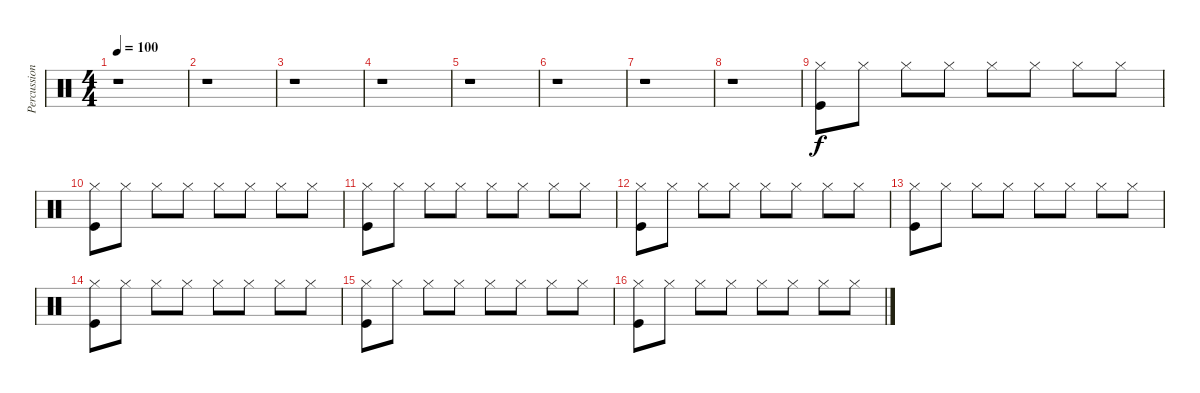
\track ("Percussion" "Percussion") {instrument percussion}
\staff {score}
\articulation defaults
\ts (4 4)
\tempo 100
\clef neutral
\ks c
r.1{dy f} |
r.1 |
r.1 |
r.1 |
r.1 |
r.1 |
r.1 |
r.1 |
("Hi-Hat (closed)" "Kick (hit)").8 "Hi-Hat (closed)".8 "Hi-Hat (closed)".8 "Hi-Hat (closed)".8 "Hi-Hat (closed)".8 "Hi-Hat (closed)".8 "Hi-Hat (closed)".8 "Hi-Hat (closed)".8 |
("Hi-Hat (closed)" "Kick (hit)").8 "Hi-Hat (closed)".8 "Hi-Hat (closed)".8 "Hi-Hat (closed)".8 "Hi-Hat (closed)".8 "Hi-Hat (closed)".8 "Hi-Hat (closed)".8 "Hi-Hat (closed)".8 |
("Hi-Hat (closed)" "Kick (hit)").8 "Hi-Hat (closed)".8 "Hi-Hat (closed)".8 "Hi-Hat (closed)".8 "Hi-Hat (closed)".8 "Hi-Hat (closed)".8 "Hi-Hat (closed)".8 "Hi-Hat (closed)".8 |
("Hi-Hat (closed)" "Kick (hit)").8 "Hi-Hat (closed)".8 "Hi-Hat (closed)".8 "Hi-Hat (closed)".8 "Hi-Hat (closed)".8 "Hi-Hat (closed)".8 "Hi-Hat (closed)".8 "Hi-Hat (closed)".8 |
("Hi-Hat (closed)" "Kick (hit)").8 "Hi-Hat (closed)".8 "Hi-Hat (closed)".8 "Hi-Hat (closed)".8 "Hi-Hat (closed)".8 "Hi-Hat (closed)".8 "Hi-Hat (closed)".8 "Hi-Hat (closed)".8 |
("Hi-Hat (closed)" "Kick (hit)").8 "Hi-Hat (closed)".8 "Hi-Hat (closed)".8 "Hi-Hat (closed)".8 "Hi-Hat (closed)".8 "Hi-Hat (closed)".8 "Hi-Hat (closed)".8 "Hi-Hat (closed)".8 |
("Hi-Hat (closed)" "Kick (hit)").8 "Hi-Hat (closed)".8 "Hi-Hat (closed)".8 "Hi-Hat (closed)".8 "Hi-Hat (closed)".8 "Hi-Hat (closed)".8 "Hi-Hat (closed)".8 "Hi-Hat (closed)".8 |
("Hi-Hat (closed)" "Kick (hit)").8 "Hi-Hat (closed)".8 "Hi-Hat (closed)".8 "Hi-Hat (closed)".8 "Hi-Hat (closed)".8 "Hi-Hat (closed)".8 "Hi-Hat (closed)".8 "Hi-Hat (closed)".8
